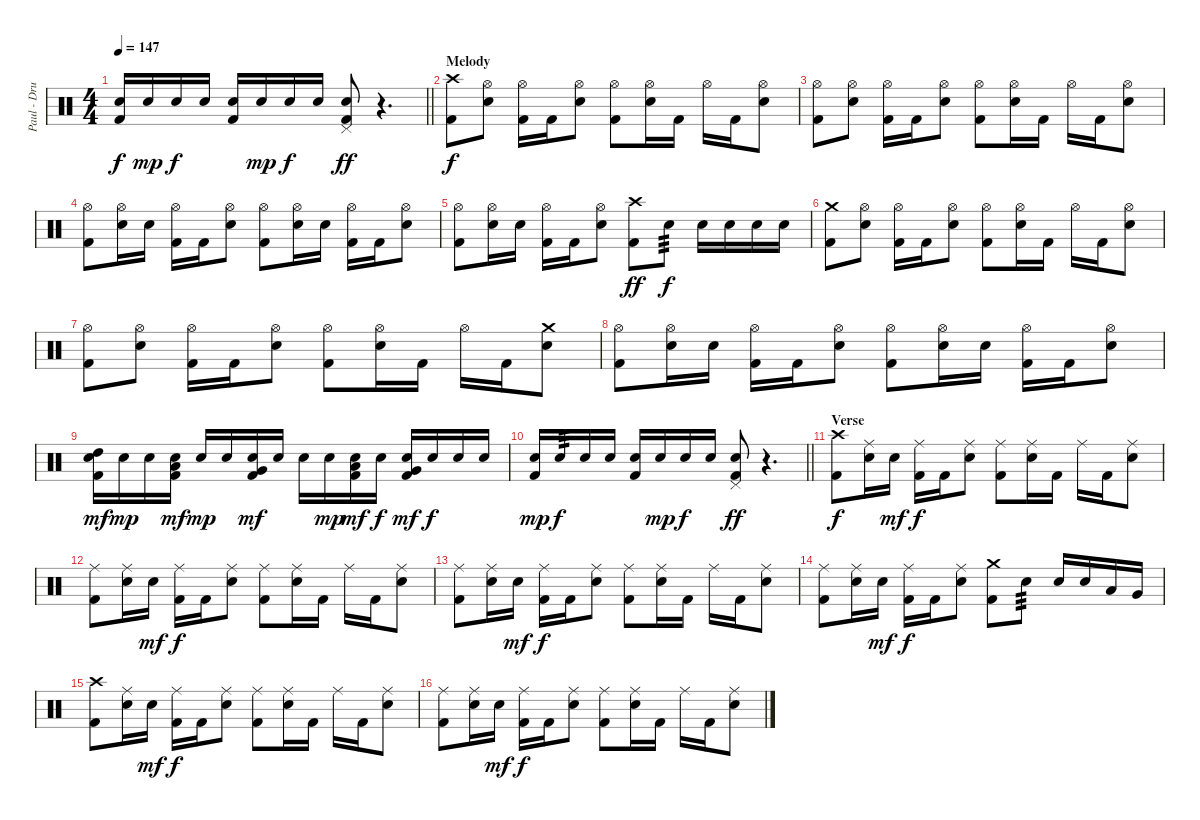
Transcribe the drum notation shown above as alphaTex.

\track ("Paul - Drums" "Paul - Dru") {instrument percussion}
\staff {score}
\articulation defaults
\ts (4 4)
\tempo 147
\clef neutral
\barLineRight lightlight
\ks c
("Electric Snare (hit)" "Kick (hit) 2").16{dy f} "Electric Snare (hit)".16{dy mp} "Electric Snare (hit)".16{dy f} "Electric Snare (hit)".16 ("Electric Snare (hit)" "Kick (hit) 2").16 "Electric Snare (hit)".16{dy mp} "Electric Snare (hit)".16{dy f} "Electric Snare (hit)".16 ("Pedal Hi-Hat (hit)" "Electric Snare (hit)" "Kick (hit) 2").8{dy ff} r.4{d} |
\section ("" "Melody")
("Crash high (hit)" "Kick (hit) 2").8{dy f} ("Hi-Hat (open)" "Electric Snare (hit)").8 ("Hi-Hat (open)" "Kick (hit) 2").16 "Kick (hit) 2".16 ("Hi-Hat (open)" "Electric Snare (hit)").8 ("Hi-Hat (open)" "Kick (hit) 2").8 ("Hi-Hat (open)" "Electric Snare (hit)").16 "Kick (hit) 2".16 "Hi-Hat (open)".16 "Kick (hit) 2".16 ("Hi-Hat (open)" "Electric Snare (hit)").8 |
("Hi-Hat (open)" "Kick (hit) 2").8 ("Hi-Hat (open)" "Electric Snare (hit)").8 ("Hi-Hat (open)" "Kick (hit) 2").16 "Kick (hit) 2".16 ("Hi-Hat (open)" "Electric Snare (hit)").8 ("Hi-Hat (open)" "Kick (hit) 2").8 ("Hi-Hat (open)" "Electric Snare (hit)").16 "Kick (hit) 2".16 "Hi-Hat (open)".16 "Kick (hit) 2".16 ("Hi-Hat (open)" "Electric Snare (hit)").8 |
("Hi-Hat (open)" "Kick (hit) 2").8 ("Hi-Hat (open)" "Electric Snare (hit)").16 "Electric Snare (hit)".16 ("Hi-Hat (open)" "Kick (hit) 2").16 "Kick (hit) 2".16 ("Hi-Hat (open)" "Electric Snare (hit)").8 ("Hi-Hat (open)" "Kick (hit) 2").8 ("Hi-Hat (open)" "Electric Snare (hit)").16 "Electric Snare (hit)".16 ("Hi-Hat (open)" "Kick (hit) 2").16 "Kick (hit) 2".16 ("Hi-Hat (open)" "Electric Snare (hit)").8 |
("Hi-Hat (open)" "Kick (hit) 2").8 ("Hi-Hat (open)" "Electric Snare (hit)").16 "Electric Snare (hit)".16 ("Hi-Hat (open)" "Kick (hit) 2").16 "Kick (hit) 2".16 ("Hi-Hat (open)" "Electric Snare (hit)").8 ("Crash high (hit)" "Kick (hit) 2").8{dy ff} "Electric Snare (hit)".8{tp 3 dy f} "Electric Snare (hit)".16 "Electric Snare (hit)".16 "Electric Snare (hit)".16 "Electric Snare (hit)".16 |
("Crash medium (hit)" "Kick (hit) 2").8 ("Hi-Hat (open)" "Electric Snare (hit)").8 ("Hi-Hat (open)" "Kick (hit) 2").16 "Kick (hit) 2".16 ("Hi-Hat (open)" "Electric Snare (hit)").8 ("Hi-Hat (open)" "Kick (hit) 2").8 ("Hi-Hat (open)" "Electric Snare (hit)").16 "Kick (hit) 2".16 "Hi-Hat (open)".16 "Kick (hit) 2".16 ("Hi-Hat (open)" "Electric Snare (hit)").8 |
("Hi-Hat (open)" "Kick (hit) 2").8 ("Hi-Hat (open)" "Electric Snare (hit)").8 ("Hi-Hat (open)" "Kick (hit) 2").16 "Kick (hit) 2".16 ("Hi-Hat (open)" "Electric Snare (hit)").8 ("Hi-Hat (open)" "Kick (hit) 2").8 ("Hi-Hat (open)" "Electric Snare (hit)").16 "Kick (hit) 2".16 "Hi-Hat (open)".16 "Kick (hit) 2".16 ("Crash medium (hit)" "Electric Snare (hit)").8 |
("Hi-Hat (open)" "Kick (hit) 2").8 ("Hi-Hat (open)" "Electric Snare (hit)").16 "Electric Snare (hit)".16 ("Hi-Hat (open)" "Kick (hit) 2").16 "Kick (hit) 2".16 ("Hi-Hat (open)" "Electric Snare (hit)").8 ("Hi-Hat (open)" "Kick (hit) 2").8 ("Hi-Hat (open)" "Electric Snare (hit)").16 "Electric Snare (hit)".16 ("Hi-Hat (open)" "Kick (hit) 2").16 "Kick (hit) 2".16 ("Hi-Hat (open)" "Electric Snare (hit)").8 |
("High Tom (hit)" "Electric Snare (hit)" "Kick (hit) 2").16{dy mf} "Electric Snare (hit)".16{dy mp} "Electric Snare (hit)".16 ("Low Tom (hit)" "Electric Snare (hit)" "Kick (hit) 2").16{dy mf} "Electric Snare (hit)".16{dy mp} "Electric Snare (hit)".16 ("Very Low Tom (hit)" "Electric Snare (hit)" "Kick (hit) 2").16{dy mf} "Electric Snare (hit)".16 "Electric Snare (hit)".16 "Electric Snare (hit)".16{dy mp} ("Low Tom (hit)" "Electric Snare (hit)" "Kick (hit) 2").16{dy mf} "Electric Snare (hit)".16{dy f} ("Very Low Tom (hit)" "Electric Snare (hit)" "Kick (hit) 2").16{dy mf} "Electric Snare (hit)".16{dy f} "Electric Snare (hit)".16 "Electric Snare (hit)".16 |
\barLineRight lightlight
("Electric Snare (hit)" "Kick (hit) 2").16{dy mp} "Electric Snare (hit)".16{tp 3 dy f} "Electric Snare (hit)".16 "Electric Snare (hit)".16 ("Electric Snare (hit)" "Kick (hit) 2").16 "Electric Snare (hit)".16{dy mp} "Electric Snare (hit)".16{dy f} "Electric Snare (hit)".16 ("Pedal Hi-Hat (hit)" "Electric Snare (hit)" "Kick (hit) 2").8{dy ff} r.4{d} |
\section ("" "Verse")
("Crash high (hit)" "Kick (hit) 2").8{dy f} ("Ride (middle)" "Electric Snare (hit)").16 "Electric Snare (hit)".16{dy mf} ("Ride (middle)" "Kick (hit) 2").16{dy f} "Kick (hit) 2".16 ("Ride (middle)" "Electric Snare (hit)").8 ("Ride (middle)" "Kick (hit) 2").8 ("Ride (middle)" "Electric Snare (hit)").16 "Kick (hit) 2".16 "Ride (middle)".16 "Kick (hit) 2".16 ("Ride (middle)" "Electric Snare (hit)").8 |
("Ride (middle)" "Kick (hit) 2").8 ("Ride (middle)" "Electric Snare (hit)").16 "Electric Snare (hit)".16{dy mf} ("Ride (middle)" "Kick (hit) 2").16{dy f} "Kick (hit) 2".16 ("Ride (middle)" "Electric Snare (hit)").8 ("Ride (middle)" "Kick (hit) 2").8 ("Ride (middle)" "Electric Snare (hit)").16 "Kick (hit) 2".16 "Ride (middle)".16 "Kick (hit) 2".16 ("Ride (middle)" "Electric Snare (hit)").8 |
("Ride (middle)" "Kick (hit) 2").8 ("Ride (middle)" "Electric Snare (hit)").16 "Electric Snare (hit)".16{dy mf} ("Ride (middle)" "Kick (hit) 2").16{dy f} "Kick (hit) 2".16 ("Ride (middle)" "Electric Snare (hit)").8 ("Ride (middle)" "Kick (hit) 2").8 ("Ride (middle)" "Electric Snare (hit)").16 "Kick (hit) 2".16 "Ride (middle)".16 "Kick (hit) 2".16 ("Ride (middle)" "Electric Snare (hit)").8 |
("Ride (middle)" "Kick (hit) 2").8 ("Ride (middle)" "Electric Snare (hit)").16 "Electric Snare (hit)".16{dy mf} ("Ride (middle)" "Kick (hit) 2").16{dy f} "Kick (hit) 2".16 ("Ride (middle)" "Electric Snare (hit)").8 ("Crash medium (hit)" "Kick (hit) 2").8 "Electric Snare (hit)".8{tp 3} "Electric Snare (hit)".16 "Electric Snare (hit)".16 "Low Tom (hit)".16 "Very Low Tom (hit)".16 |
("Crash high (hit)" "Kick (hit) 2").8 ("Ride (middle)" "Electric Snare (hit)").16 "Electric Snare (hit)".16{dy mf} ("Ride (middle)" "Kick (hit) 2").16{dy f} "Kick (hit) 2".16 ("Ride (middle)" "Electric Snare (hit)").8 ("Ride (middle)" "Kick (hit) 2").8 ("Ride (middle)" "Electric Snare (hit)").16 "Kick (hit) 2".16 "Ride (middle)".16 "Kick (hit) 2".16 ("Ride (middle)" "Electric Snare (hit)").8 |
("Ride (middle)" "Kick (hit) 2").8 ("Ride (middle)" "Electric Snare (hit)").16 "Electric Snare (hit)".16{dy mf} ("Ride (middle)" "Kick (hit) 2").16{dy f} "Kick (hit) 2".16 ("Ride (middle)" "Electric Snare (hit)").8 ("Ride (middle)" "Kick (hit) 2").8 ("Ride (middle)" "Electric Snare (hit)").16 "Kick (hit) 2".16 "Ride (middle)".16 "Kick (hit) 2".16 ("Ride (middle)" "Electric Snare (hit)").8
